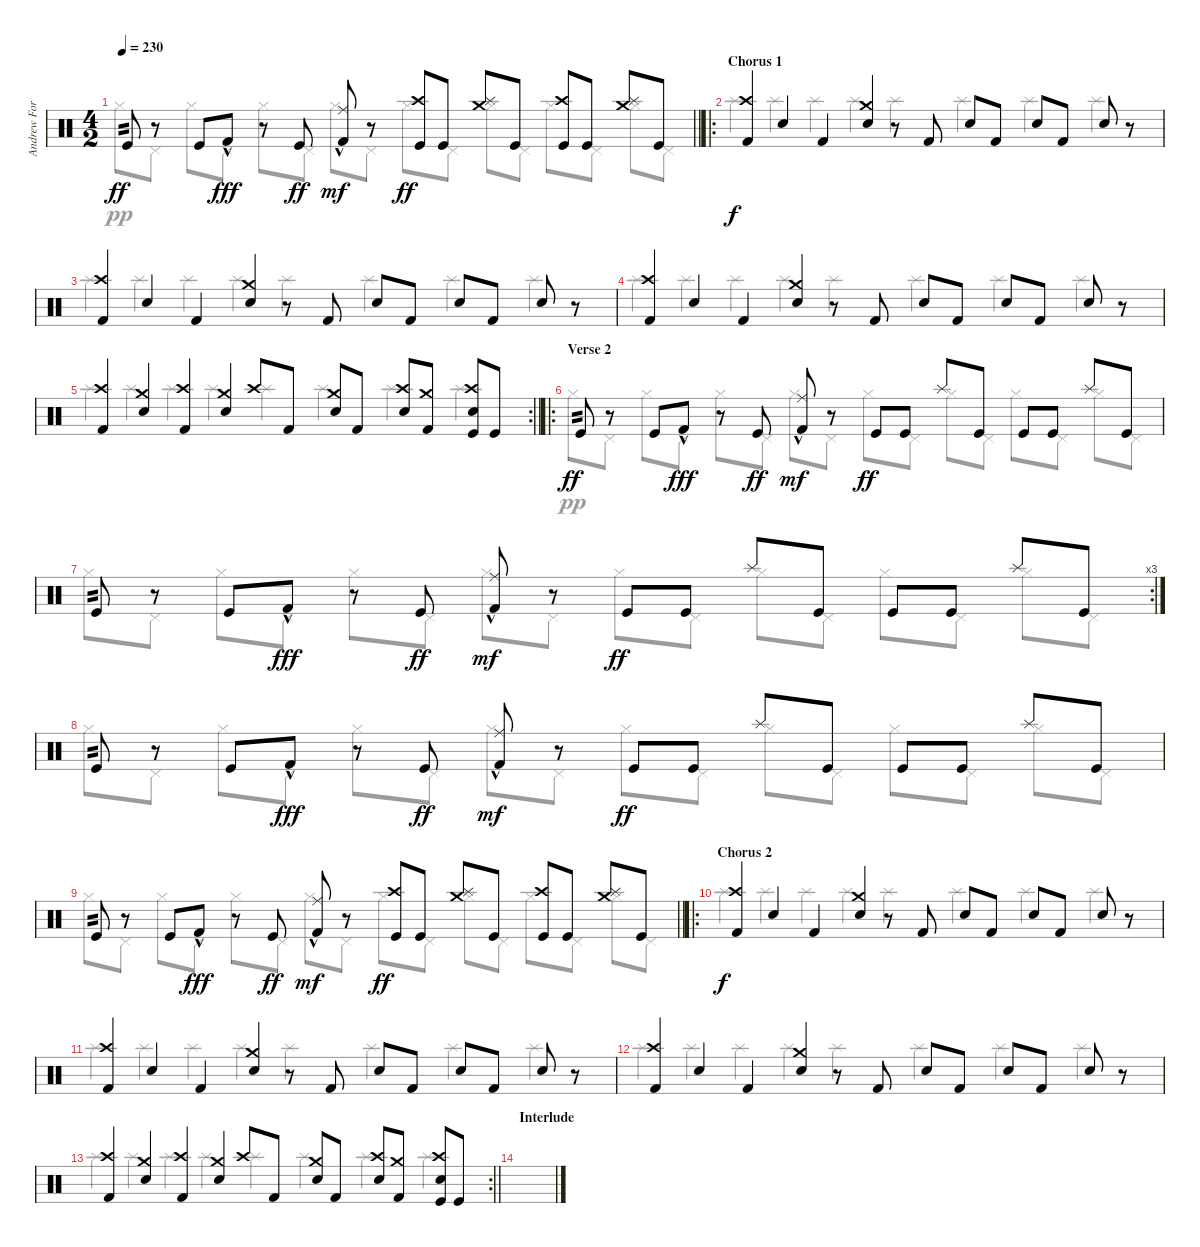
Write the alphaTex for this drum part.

\track ("Andrew Forsman" "Andrew For") {instrument percussion}
\staff {score}
\articulation defaults
\voice
\ts (4 2)
\tempo 230
\clef neutral
\barLineRight lightlight
\ks c "Kick (hit)".8{tp 2 dy ff}
r.8 "Kick (hit)".8 "Kick (hit) 2"{hac}.8{dy fff} r.8 "Kick (hit)".8{dy ff} ("Kick (hit) 2"{hac} "Ride (middle)").8{dy mf} r.8 ("Kick (hit)" "Crash high (hit)").8{dy ff} "Kick (hit)".8 ("Splash (hit)" "Crash medium (hit)").8 "Kick (hit)".8 ("Kick (hit)" "Crash high (hit)").8 "Kick (hit)".8 ("Splash (hit)" "Crash medium (hit)").8 "Kick (hit)".8 |
\ro
\section ("" "Chorus 1")
("Kick (hit) 2" "Crash high (hit)").4{dy f} "Snare (hit) 2".4 "Kick (hit) 2".4 ("Snare (hit) 2" "Crash medium (hit)").4 r.8 "Kick (hit) 2".8 "Snare (hit) 2".8 "Kick (hit) 2".8 "Snare (hit) 2".8 "Kick (hit) 2".8 "Snare (hit) 2".8 r.8 |
("Kick (hit) 2" "Crash high (hit)").4 "Snare (hit) 2".4 "Kick (hit) 2".4 ("Snare (hit) 2" "Crash medium (hit)").4 r.8 "Kick (hit) 2".8 "Snare (hit) 2".8 "Kick (hit) 2".8 "Snare (hit) 2".8 "Kick (hit) 2".8 "Snare (hit) 2".8 r.8 |
("Kick (hit) 2" "Crash high (hit)").4 "Snare (hit) 2".4 "Kick (hit) 2".4 ("Snare (hit) 2" "Crash medium (hit)").4 r.8 "Kick (hit) 2".8 "Snare (hit) 2".8 "Kick (hit) 2".8 "Snare (hit) 2".8 "Kick (hit) 2".8 "Snare (hit) 2".8 r.8 |
\rc 2
\barLineRight lightlight
("Kick (hit) 2" "Crash high (hit)").4 ("Snare (hit) 2" "Crash medium (hit)").4 ("Kick (hit) 2" "Crash high (hit)").4 ("Snare (hit) 2" "Crash medium (hit)").4 "Crash high (hit)".8 "Kick (hit) 2".8 ("Snare (hit) 2" "Crash medium (hit)").8 "Kick (hit) 2".8 ("Snare (hit) 2" "Crash high (hit)").8 ("Kick (hit) 2" "Crash medium (hit)").8 ("Kick (hit)" "Snare (hit) 2" "Crash high (hit)").8 "Kick (hit)".8 |
\ro
\section ("" "Verse 2")
"Kick (hit)".8{tp 2 dy ff} r.8 "Kick (hit)".8 "Kick (hit) 2"{hac}.8{dy fff} r.8 "Kick (hit)".8{dy ff} ("Kick (hit) 2"{hac} "Ride (middle)").8{dy mf} r.8 "Kick (hit)".8{dy ff} "Kick (hit)".8 "Splash (hit)".8 "Kick (hit)".8 "Kick (hit)".8 "Kick (hit)".8 "Splash (hit)".8 "Kick (hit)".8 |
\rc 3 "Kick (hit)".8{tp 2}
r.8 "Kick (hit)".8 "Kick (hit) 2"{hac}.8{dy fff} r.8 "Kick (hit)".8{dy ff} ("Kick (hit) 2"{hac} "Ride (middle)").8{dy mf} r.8 "Kick (hit)".8{dy ff} "Kick (hit)".8 "Splash (hit)".8 "Kick (hit)".8 "Kick (hit)".8 "Kick (hit)".8 "Splash (hit)".8 "Kick (hit)".8 |
"Kick (hit)".8{tp 2} r.8 "Kick (hit)".8 "Kick (hit) 2"{hac}.8{dy fff} r.8 "Kick (hit)".8{dy ff} ("Kick (hit) 2"{hac} "Ride (middle)").8{dy mf} r.8 "Kick (hit)".8{dy ff} "Kick (hit)".8 "Splash (hit)".8 "Kick (hit)".8 "Kick (hit)".8 "Kick (hit)".8 "Splash (hit)".8 "Kick (hit)".8 |
\barLineRight lightlight "Kick (hit)".8{tp 2}
r.8 "Kick (hit)".8 "Kick (hit) 2"{hac}.8{dy fff} r.8 "Kick (hit)".8{dy ff} ("Kick (hit) 2"{hac} "Ride (middle)").8{dy mf} r.8 ("Kick (hit)" "Crash high (hit)").8{dy ff} "Kick (hit)".8 ("Splash (hit)" "Crash medium (hit)").8 "Kick (hit)".8 ("Kick (hit)" "Crash high (hit)").8 "Kick (hit)".8 ("Splash (hit)" "Crash medium (hit)").8 "Kick (hit)".8 |
\ro
\section ("" "Chorus 2")
("Kick (hit) 2" "Crash high (hit)").4{dy f} "Snare (hit) 2".4 "Kick (hit) 2".4 ("Snare (hit) 2" "Crash medium (hit)").4 r.8 "Kick (hit) 2".8 "Snare (hit) 2".8 "Kick (hit) 2".8 "Snare (hit) 2".8 "Kick (hit) 2".8 "Snare (hit) 2".8 r.8 |
("Kick (hit) 2" "Crash high (hit)").4 "Snare (hit) 2".4 "Kick (hit) 2".4 ("Snare (hit) 2" "Crash medium (hit)").4 r.8 "Kick (hit) 2".8 "Snare (hit) 2".8 "Kick (hit) 2".8 "Snare (hit) 2".8 "Kick (hit) 2".8 "Snare (hit) 2".8 r.8 |
("Kick (hit) 2" "Crash high (hit)").4 "Snare (hit) 2".4 "Kick (hit) 2".4 ("Snare (hit) 2" "Crash medium (hit)").4 r.8 "Kick (hit) 2".8 "Snare (hit) 2".8 "Kick (hit) 2".8 "Snare (hit) 2".8 "Kick (hit) 2".8 "Snare (hit) 2".8 r.8 |
\rc 2
\barLineRight lightlight
("Kick (hit) 2" "Crash high (hit)").4 ("Snare (hit) 2" "Crash medium (hit)").4 ("Kick (hit) 2" "Crash high (hit)").4 ("Snare (hit) 2" "Crash medium (hit)").4 "Crash high (hit)".8 "Kick (hit) 2".8 ("Snare (hit) 2" "Crash medium (hit)").8 "Kick (hit) 2".8 ("Snare (hit) 2" "Crash high (hit)").8 ("Kick (hit) 2" "Crash medium (hit)").8 ("Kick (hit)" "Snare (hit) 2" "Crash high (hit)").8 "Kick (hit)".8 |
\section ("" "Interlude")
|
|
\voice
\clef neutral
\ottava regular
\simile none
\barLineRight lightlight
\ks c "Hi-Hat (closed)".8{dy pp} "Pedal Hi-Hat (hit)".8 "Hi-Hat (closed)".8 "Pedal Hi-Hat (hit)".8 "Hi-Hat (closed)".8 "Pedal Hi-Hat (hit)".8 "Hi-Hat (closed)".8 "Pedal Hi-Hat (hit)".8 "Hi-Hat (closed)".8 "Pedal Hi-Hat (hit)".8 "Hi-Hat (closed)".8 "Pedal Hi-Hat (hit)".8 "Hi-Hat (closed)".8 "Pedal Hi-Hat (hit)".8 "Hi-Hat (closed)".8 "Pedal Hi-Hat (hit)".8
|
"Splash (hit)".4{dy f} "Splash (hit)".4 "Splash (hit)".4 "Splash (hit)".4 "Splash (hit)".4 "Splash (hit)".4 "Splash (hit)".4 "Splash (hit)".4 |
"Splash (hit)".4 "Splash (hit)".4 "Splash (hit)".4 "Splash (hit)".4 "Splash (hit)".4 "Splash (hit)".4 "Splash (hit)".4 "Splash (hit)".4 |
"Splash (hit)".4 "Splash (hit)".4 "Splash (hit)".4 "Splash (hit)".4 "Splash (hit)".4 "Splash (hit)".4 "Splash (hit)".4 "Splash (hit)".4 |
\barLineRight lightlight "Splash (hit)".4 "Splash (hit)".4 "Splash (hit)".4 "Splash (hit)".4 "Splash (hit)".4 "Splash (hit)".4 "Splash (hit)".4 "Splash (hit)".4
|
"Hi-Hat (closed)".8{dy pp} "Pedal Hi-Hat (hit)".8 "Hi-Hat (closed)".8 "Pedal Hi-Hat (hit)".8 "Hi-Hat (closed)".8 "Pedal Hi-Hat (hit)".8 "Hi-Hat (closed)".8 "Pedal Hi-Hat (hit)".8 "Hi-Hat (closed)".8 "Pedal Hi-Hat (hit)".8 "Hi-Hat (closed)".8 "Pedal Hi-Hat (hit)".8 "Hi-Hat (closed)".8 "Pedal Hi-Hat (hit)".8 "Hi-Hat (closed)".8 "Pedal Hi-Hat (hit)".8 |
"Hi-Hat (closed)".8 "Pedal Hi-Hat (hit)".8 "Hi-Hat (closed)".8 "Pedal Hi-Hat (hit)".8 "Hi-Hat (closed)".8 "Pedal Hi-Hat (hit)".8 "Hi-Hat (closed)".8 "Pedal Hi-Hat (hit)".8 "Hi-Hat (closed)".8 "Pedal Hi-Hat (hit)".8 "Hi-Hat (closed)".8 "Pedal Hi-Hat (hit)".8 "Hi-Hat (closed)".8 "Pedal Hi-Hat (hit)".8 "Hi-Hat (closed)".8 "Pedal Hi-Hat (hit)".8 |
"Hi-Hat (closed)".8 "Pedal Hi-Hat (hit)".8 "Hi-Hat (closed)".8 "Pedal Hi-Hat (hit)".8 "Hi-Hat (closed)".8 "Pedal Hi-Hat (hit)".8 "Hi-Hat (closed)".8 "Pedal Hi-Hat (hit)".8 "Hi-Hat (closed)".8 "Pedal Hi-Hat (hit)".8 "Hi-Hat (closed)".8 "Pedal Hi-Hat (hit)".8 "Hi-Hat (closed)".8 "Pedal Hi-Hat (hit)".8 "Hi-Hat (closed)".8 "Pedal Hi-Hat (hit)".8 |
\barLineRight lightlight "Hi-Hat (closed)".8 "Pedal Hi-Hat (hit)".8 "Hi-Hat (closed)".8 "Pedal Hi-Hat (hit)".8 "Hi-Hat (closed)".8 "Pedal Hi-Hat (hit)".8 "Hi-Hat (closed)".8 "Pedal Hi-Hat (hit)".8 "Hi-Hat (closed)".8 "Pedal Hi-Hat (hit)".8 "Hi-Hat (closed)".8 "Pedal Hi-Hat (hit)".8 "Hi-Hat (closed)".8 "Pedal Hi-Hat (hit)".8 "Hi-Hat (closed)".8 "Pedal Hi-Hat (hit)".8
|
"Splash (hit)".4{dy f} "Splash (hit)".4 "Splash (hit)".4 "Splash (hit)".4 "Splash (hit)".4 "Splash (hit)".4 "Splash (hit)".4 "Splash (hit)".4 |
"Splash (hit)".4 "Splash (hit)".4 "Splash (hit)".4 "Splash (hit)".4 "Splash (hit)".4 "Splash (hit)".4 "Splash (hit)".4 "Splash (hit)".4 |
"Splash (hit)".4 "Splash (hit)".4 "Splash (hit)".4 "Splash (hit)".4 "Splash (hit)".4 "Splash (hit)".4 "Splash (hit)".4 "Splash (hit)".4 |
\barLineRight lightlight "Splash (hit)".4 "Splash (hit)".4 "Splash (hit)".4 "Splash (hit)".4 "Splash (hit)".4 "Splash (hit)".4 "Splash (hit)".4 "Splash (hit)".4
|
|
|
